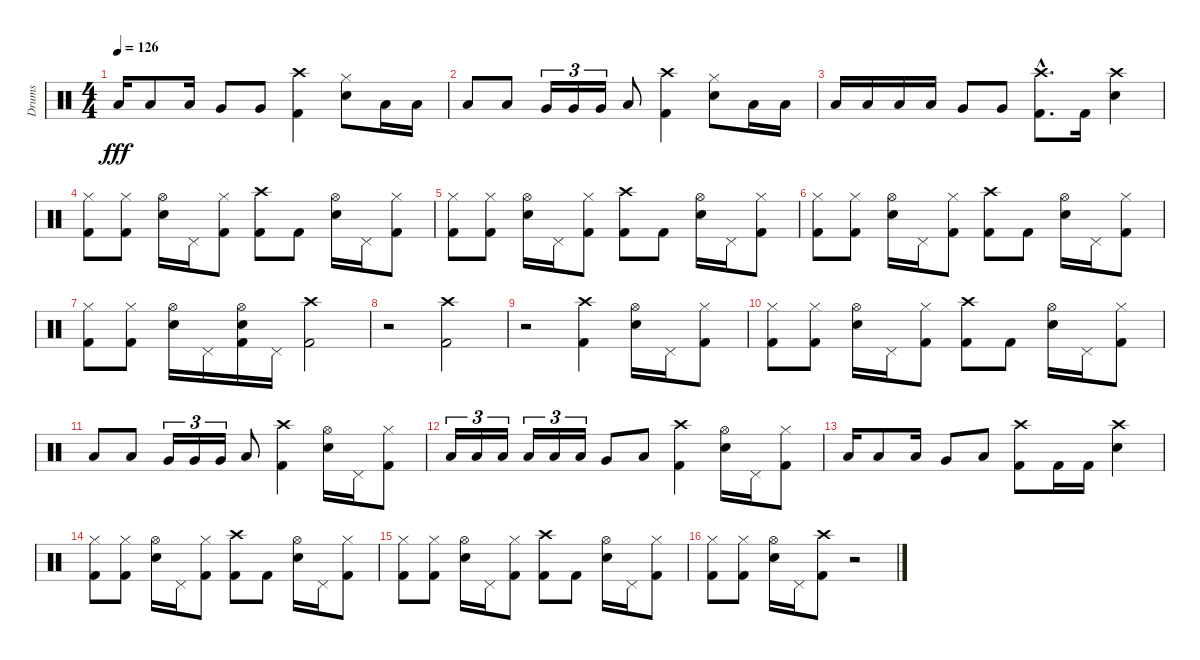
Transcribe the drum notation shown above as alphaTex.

\track ("Drums" "Drums") {instrument percussion}
\staff {score}
\articulation defaults
\ts (4 4)
\tempo 126
\clef neutral
\ks c "Low Tom (hit)".16{dy fff} "Low Tom (hit)".8 "Low Tom (hit)".16 "Very Low Tom (hit)".8 "Very Low Tom (hit)".8
("Crash high (hit)" "Kick (hit) 2").4 ("Hi-Hat (closed)" "Electric Snare (hit)").8 "Low Tom (hit)".16 "Low Tom (hit)".16 |
"Low Tom (hit)".8 "Low Tom (hit)".8 "Very Low Tom (hit)".16{tu (3 2)} "Very Low Tom (hit)".16{tu (3 2)} "Very Low Tom (hit)".16{tu (3 2)} "Low Floor Tom (hit)".8 ("Crash high (hit)" "Kick (hit) 2").4 ("Hi-Hat (closed)" "Electric Snare (hit)").8 "Low Tom (hit)".16 "Low Tom (hit)".16 |
"Low Tom (hit)".16 "Low Tom (hit)".16 "Low Tom (hit)".16 "Low Tom (hit)".16 "Very Low Tom (hit)".8 "Very Low Tom (hit)".8 ("Crash high (hit)"{hac} "Kick (hit) 2"{hac}).8{d} "Kick (hit) 2".16 ("Crash high (hit)" "Electric Snare (hit)").4 |
("Hi-Hat (closed)" "Kick (hit) 2").8 ("Hi-Hat (closed)" "Kick (hit) 2").8 ("Hi-Hat (open)" "Electric Snare (hit)").16 "Pedal Hi-Hat (hit)".16 ("Hi-Hat (closed)" "Kick (hit) 2").8 ("Crash high (hit)" "Kick (hit) 2").8 "Kick (hit) 2".8 ("Hi-Hat (open)" "Electric Snare (hit)").16 "Pedal Hi-Hat (hit)".16 ("Hi-Hat (closed)" "Kick (hit) 2").8 |
("Hi-Hat (closed)" "Kick (hit) 2").8 ("Hi-Hat (closed)" "Kick (hit) 2").8 ("Hi-Hat (open)" "Electric Snare (hit)").16 "Pedal Hi-Hat (hit)".16 ("Hi-Hat (closed)" "Kick (hit) 2").8 ("Crash high (hit)" "Kick (hit) 2").8 "Kick (hit) 2".8 ("Hi-Hat (open)" "Electric Snare (hit)").16 "Pedal Hi-Hat (hit)".16 ("Hi-Hat (closed)" "Kick (hit) 2").8 |
("Hi-Hat (closed)" "Kick (hit) 2").8 ("Hi-Hat (closed)" "Kick (hit) 2").8 ("Hi-Hat (open)" "Electric Snare (hit)").16 "Pedal Hi-Hat (hit)".16 ("Hi-Hat (closed)" "Kick (hit) 2").8 ("Crash high (hit)" "Kick (hit) 2").8 "Kick (hit) 2".8 ("Hi-Hat (open)" "Electric Snare (hit)").16 "Pedal Hi-Hat (hit)".16 ("Hi-Hat (closed)" "Kick (hit) 2").8 |
("Hi-Hat (closed)" "Kick (hit) 2").8 ("Hi-Hat (closed)" "Kick (hit) 2").8 ("Hi-Hat (open)" "Electric Snare (hit)").16 "Pedal Hi-Hat (hit)".16 ("Hi-Hat (open)" "Electric Snare (hit)" "Kick (hit) 2").16 "Pedal Hi-Hat (hit)".16 ("Crash high (hit)" "Kick (hit) 2").2 |
r.2 ("Crash high (hit)" "Kick (hit) 2").2 |
r.2 ("Crash high (hit)" "Kick (hit) 2").4 ("Hi-Hat (open)" "Electric Snare (hit)").16 "Pedal Hi-Hat (hit)".16 ("Hi-Hat (closed)" "Kick (hit) 2").8 |
("Hi-Hat (closed)" "Kick (hit) 2").8 ("Hi-Hat (closed)" "Kick (hit) 2").8 ("Hi-Hat (open)" "Electric Snare (hit)").16 "Pedal Hi-Hat (hit)".16 ("Hi-Hat (closed)" "Kick (hit) 2").8 ("Crash high (hit)" "Kick (hit) 2").8 "Kick (hit) 2".8 ("Hi-Hat (open)" "Electric Snare (hit)").16 "Pedal Hi-Hat (hit)".16 ("Hi-Hat (closed)" "Kick (hit) 2").8 |
"Low Tom (hit)".8 "Low Tom (hit)".8 "Very Low Tom (hit)".16{tu (3 2)} "Very Low Tom (hit)".16{tu (3 2)} "Very Low Tom (hit)".16{tu (3 2)} "Low Floor Tom (hit)".8 ("Crash high (hit)" "Kick (hit) 2").4 ("Hi-Hat (open)" "Electric Snare (hit)").16 "Pedal Hi-Hat (hit)".16 ("Hi-Hat (closed)" "Kick (hit) 2").8 |
"Low Tom (hit)".16{tu (3 2)} "Low Tom (hit)".16{tu (3 2)} "Low Tom (hit)".16{tu (3 2)} "Low Tom (hit)".16{tu (3 2)} "Low Tom (hit)".16{tu (3 2)} "Low Tom (hit)".16{tu (3 2)} "Very Low Tom (hit)".8 "Low Floor Tom (hit)".8 ("Crash high (hit)" "Kick (hit) 2").4 ("Hi-Hat (open)" "Electric Snare (hit)").16 "Pedal Hi-Hat (hit)".16 ("Hi-Hat (closed)" "Kick (hit) 2").8 |
"Low Tom (hit)".16 "Low Tom (hit)".8 "Low Tom (hit)".16 "Very Low Tom (hit)".8 "Low Floor Tom (hit)".8 ("Crash high (hit)" "Kick (hit) 2").8 "Kick (hit) 2".16 "Kick (hit) 2".16 ("Crash high (hit)" "Electric Snare (hit)").4 |
("Hi-Hat (closed)" "Kick (hit) 2").8 ("Hi-Hat (closed)" "Kick (hit) 2").8 ("Hi-Hat (open)" "Electric Snare (hit)").16 "Pedal Hi-Hat (hit)".16 ("Hi-Hat (closed)" "Kick (hit) 2").8 ("Crash high (hit)" "Kick (hit) 2").8 "Kick (hit) 2".8 ("Hi-Hat (open)" "Electric Snare (hit)").16 "Pedal Hi-Hat (hit)".16 ("Hi-Hat (closed)" "Kick (hit) 2").8 |
("Hi-Hat (closed)" "Kick (hit) 2").8 ("Hi-Hat (closed)" "Kick (hit) 2").8 ("Hi-Hat (open)" "Electric Snare (hit)").16 "Pedal Hi-Hat (hit)".16 ("Hi-Hat (closed)" "Kick (hit) 2").8 ("Crash high (hit)" "Kick (hit) 2").8 "Kick (hit) 2".8 ("Hi-Hat (open)" "Electric Snare (hit)").16 "Pedal Hi-Hat (hit)".16 ("Hi-Hat (closed)" "Kick (hit) 2").8 |
("Hi-Hat (closed)" "Kick (hit) 2").8 ("Hi-Hat (closed)" "Kick (hit) 2").8 ("Hi-Hat (open)" "Electric Snare (hit)").16 "Pedal Hi-Hat (hit)".16 ("Crash high (hit)" "Kick (hit) 2").8 r.2
